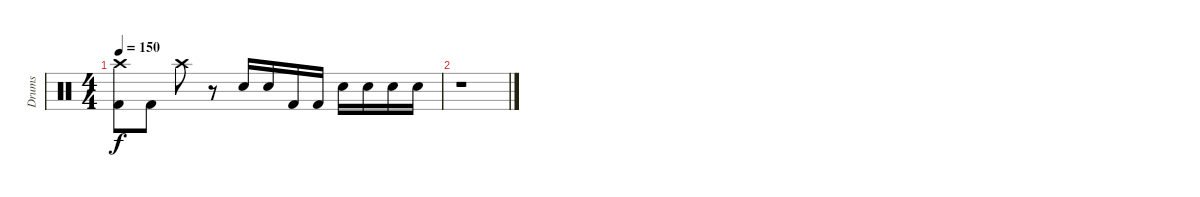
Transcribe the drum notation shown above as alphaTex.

\track ("Drums" "Drums") {instrument percussion}
\staff {score}
\articulation defaults
\ts (4 4)
\tempo 150
\clef neutral
\ks c
("Kick (hit) 2" "Crash high (hit)").8{dy f} "Kick (hit) 2".8 "Crash high (hit)".8 r.8 "Electric Snare (hit)".16 "Electric Snare (hit)".16 "Kick (hit) 2".16 "Kick (hit) 2".16 "Electric Snare (hit)".16 "Electric Snare (hit)".16 "Electric Snare (hit)".16 "Electric Snare (hit)".16 |
r.1
